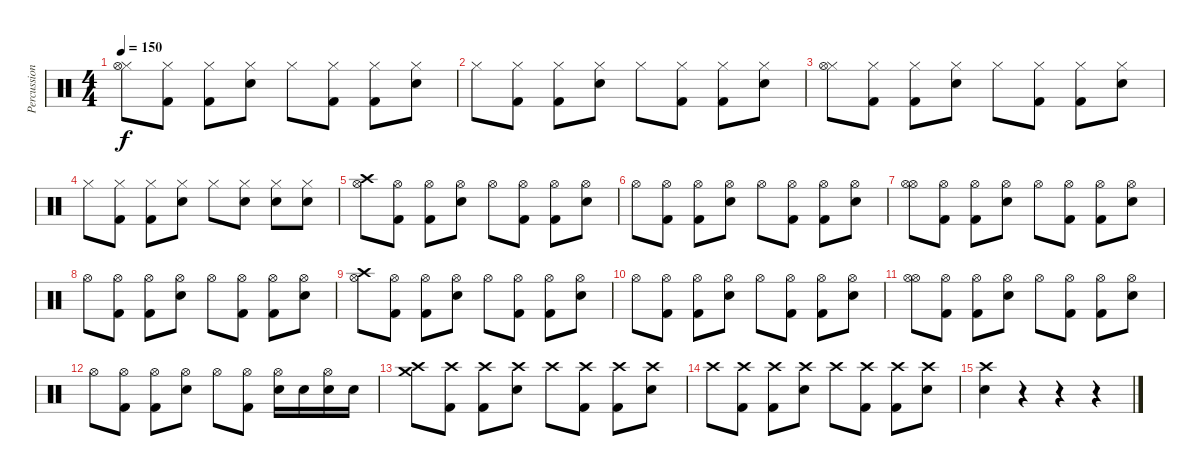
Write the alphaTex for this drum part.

\track ("Percussioni" "Percussion") {instrument percussion}
\staff {score}
\articulation defaults
\ts (4 4)
\tempo 150
\clef neutral
\ks c
("Hi-Hat (closed)" "Hi-Hat (open)").8{dy f} ("Hi-Hat (closed)" "Kick (hit) 2").8 ("Hi-Hat (closed)" "Kick (hit) 2").8 ("Hi-Hat (closed)" "Snare (hit) 2").8 "Hi-Hat (closed)".8 ("Hi-Hat (closed)" "Kick (hit) 2").8 ("Hi-Hat (closed)" "Kick (hit) 2").8 ("Hi-Hat (closed)" "Snare (hit) 2").8 |
"Hi-Hat (closed)".8 ("Hi-Hat (closed)" "Kick (hit) 2").8 ("Hi-Hat (closed)" "Kick (hit) 2").8 ("Hi-Hat (closed)" "Snare (hit) 2").8 "Hi-Hat (closed)".8 ("Hi-Hat (closed)" "Kick (hit) 2").8 ("Hi-Hat (closed)" "Kick (hit) 2").8 ("Hi-Hat (closed)" "Snare (hit) 2").8 |
("Hi-Hat (closed)" "Hi-Hat (open)").8 ("Hi-Hat (closed)" "Kick (hit) 2").8 ("Hi-Hat (closed)" "Kick (hit) 2").8 ("Hi-Hat (closed)" "Snare (hit) 2").8 "Hi-Hat (closed)".8 ("Hi-Hat (closed)" "Kick (hit) 2").8 ("Hi-Hat (closed)" "Kick (hit) 2").8 ("Hi-Hat (closed)" "Snare (hit) 2").8 |
"Hi-Hat (closed)".8 ("Hi-Hat (closed)" "Kick (hit) 2").8 ("Hi-Hat (closed)" "Kick (hit) 2").8 ("Hi-Hat (closed)" "Snare (hit) 2").8 "Hi-Hat (closed)".8 ("Hi-Hat (closed)" "Snare (hit) 2").8 ("Hi-Hat (closed)" "Snare (hit) 2").8 ("Hi-Hat (closed)" "Snare (hit) 2").8 |
("Hi-Hat (open)" "Crash high (hit)").8 ("Hi-Hat (open)" "Kick (hit) 2").8 ("Hi-Hat (open)" "Kick (hit) 2").8 ("Hi-Hat (open)" "Snare (hit) 2").8 "Hi-Hat (open)".8 ("Hi-Hat (open)" "Kick (hit) 2").8 ("Hi-Hat (open)" "Kick (hit) 2").8 ("Hi-Hat (open)" "Snare (hit) 2").8 |
"Hi-Hat (open)".8 ("Hi-Hat (open)" "Kick (hit) 2").8 ("Hi-Hat (open)" "Kick (hit) 2").8 ("Hi-Hat (open)" "Snare (hit) 2").8 "Hi-Hat (open)".8 ("Hi-Hat (open)" "Kick (hit) 2").8 ("Hi-Hat (open)" "Kick (hit) 2").8 ("Hi-Hat (open)" "Snare (hit) 2").8 |
("Hi-Hat (open)" "Hi-Hat (open)").8 ("Hi-Hat (open)" "Kick (hit) 2").8 ("Hi-Hat (open)" "Kick (hit) 2").8 ("Hi-Hat (open)" "Snare (hit) 2").8 "Hi-Hat (open)".8 ("Hi-Hat (open)" "Kick (hit) 2").8 ("Hi-Hat (open)" "Kick (hit) 2").8 ("Hi-Hat (open)" "Snare (hit) 2").8 |
"Hi-Hat (open)".8 ("Hi-Hat (open)" "Kick (hit) 2").8 ("Hi-Hat (open)" "Kick (hit) 2").8 ("Hi-Hat (open)" "Snare (hit) 2").8 "Hi-Hat (open)".8 ("Hi-Hat (open)" "Kick (hit) 2").8 ("Hi-Hat (open)" "Kick (hit) 2").8 ("Hi-Hat (open)" "Snare (hit) 2").8 |
("Hi-Hat (open)" "Crash high (hit)").8 ("Hi-Hat (open)" "Kick (hit) 2").8 ("Hi-Hat (open)" "Kick (hit) 2").8 ("Hi-Hat (open)" "Snare (hit) 2").8 "Hi-Hat (open)".8 ("Hi-Hat (open)" "Kick (hit) 2").8 ("Hi-Hat (open)" "Kick (hit) 2").8 ("Hi-Hat (open)" "Snare (hit) 2").8 |
"Hi-Hat (open)".8 ("Hi-Hat (open)" "Kick (hit) 2").8 ("Hi-Hat (open)" "Kick (hit) 2").8 ("Hi-Hat (open)" "Snare (hit) 2").8 "Hi-Hat (open)".8 ("Hi-Hat (open)" "Kick (hit) 2").8 ("Hi-Hat (open)" "Kick (hit) 2").8 ("Hi-Hat (open)" "Snare (hit) 2").8 |
("Hi-Hat (open)" "Hi-Hat (open)").8 ("Hi-Hat (open)" "Kick (hit) 2").8 ("Hi-Hat (open)" "Kick (hit) 2").8 ("Hi-Hat (open)" "Snare (hit) 2").8 "Hi-Hat (open)".8 ("Hi-Hat (open)" "Kick (hit) 2").8 ("Hi-Hat (open)" "Kick (hit) 2").8 ("Hi-Hat (open)" "Snare (hit) 2").8 |
"Hi-Hat (open)".8 ("Hi-Hat (open)" "Kick (hit) 2").8 ("Hi-Hat (open)" "Kick (hit) 2").8 ("Hi-Hat (open)" "Snare (hit) 2").8 "Hi-Hat (open)".8 ("Hi-Hat (open)" "Kick (hit) 2").8 ("Hi-Hat (open)" "Snare (hit) 2").16 "Snare (hit) 2".16 ("Hi-Hat (open)" "Snare (hit) 2").16 "Snare (hit) 2".16 |
("Crash high (hit)" "Crash medium (hit)").8 ("Crash high (hit)" "Kick (hit) 2").8 ("Crash high (hit)" "Kick (hit) 2").8 ("Crash high (hit)" "Snare (hit) 2").8 "Crash high (hit)".8 ("Crash high (hit)" "Kick (hit) 2").8 ("Crash high (hit)" "Kick (hit) 2").8 ("Crash high (hit)" "Snare (hit) 2").8 |
"Crash high (hit)".8 ("Crash high (hit)" "Kick (hit) 2").8 ("Crash high (hit)" "Kick (hit) 2").8 ("Crash high (hit)" "Snare (hit) 2").8 "Crash high (hit)".8 ("Crash high (hit)" "Kick (hit) 2").8 ("Crash high (hit)" "Kick (hit) 2").8 ("Crash high (hit)" "Snare (hit) 2").8 |
("Crash high (hit)" "Snare (hit) 2").4 r.4 r.4 r.4
